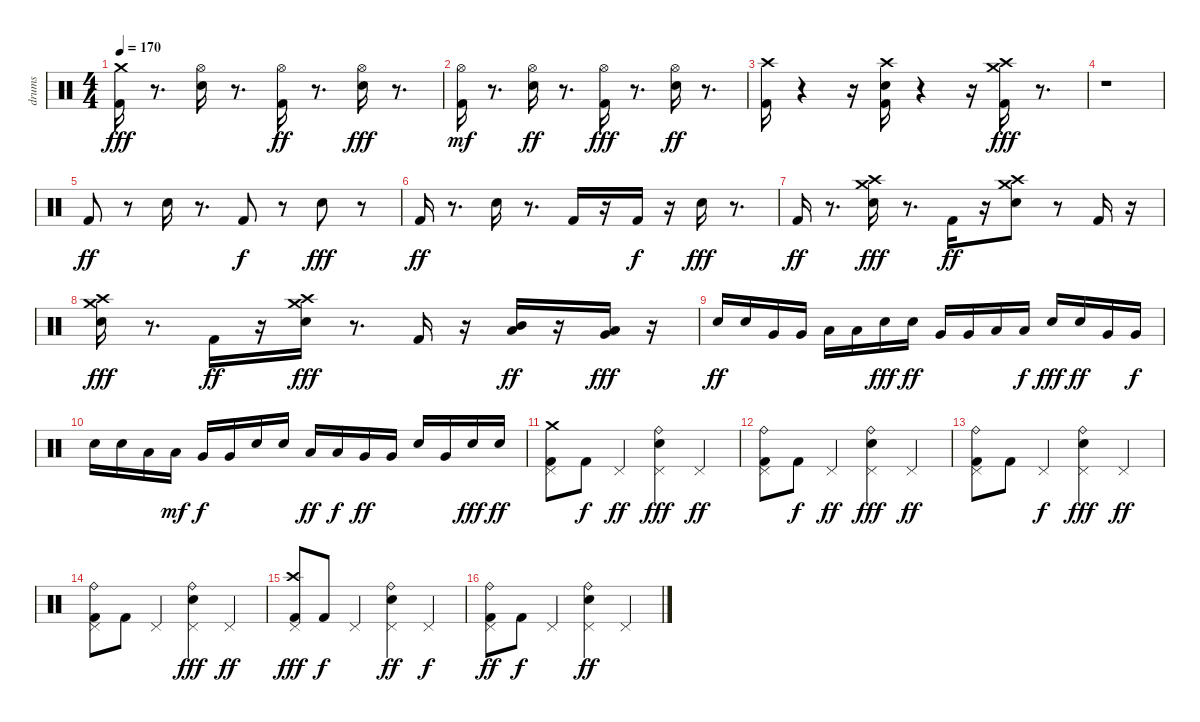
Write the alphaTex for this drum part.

\track ("drums" "drums") {instrument percussion}
\staff {score}
\articulation defaults
\ts (4 4)
\tempo 170
\clef neutral
\ks c
("Crash medium (hit)" "Kick (hit) 2").16{dy fff} r.8{d} ("Snare (hit) 2" "Hi-Hat (open)").16 r.8{d} ("Hi-Hat (open)" "Kick (hit) 2").16{dy ff} r.8{d} ("Hi-Hat (open)" "Snare (hit) 2").16{dy fff} r.8{d} |
("Hi-Hat (open)" "Kick (hit) 2").16{dy mf} r.8{d} ("Hi-Hat (open)" "Snare (hit) 2").16{dy ff} r.8{d} ("Kick (hit) 2" "Hi-Hat (open)").16{dy fff} r.8{d} ("Hi-Hat (open)" "Snare (hit) 2").16{dy ff} r.8{d} |
("Crash high (hit)" "Kick (hit) 2").16 r.4 r.16 ("Crash high (hit)" "Kick (hit) 2" "Snare (hit) 2").16 r.4 r.16 ("Crash medium (hit)" "Kick (hit) 2" "Crash high (hit)").16{dy fff} r.8{d} |
r.1 |
"Kick (hit) 2".8{dy ff} r.8 "Snare (hit) 2".16 r.8{d} "Kick (hit) 2".8{dy f} r.8 "Snare (hit) 2".8{dy fff} r.8 |
"Kick (hit) 2".16{dy ff} r.8{d} "Snare (hit) 2".16 r.8{d} "Kick (hit) 2".16 r.16 "Kick (hit) 2".16{dy f} r.16 "Snare (hit) 2".16{dy fff} r.8{d} |
"Kick (hit) 2".16{dy ff} r.8{d} ("Snare (hit) 2" "Crash high (hit)" "Crash medium (hit)").16{dy fff} r.8{d} "Kick (hit) 2".16{dy ff} r.16 ("Snare (hit) 2" "Crash high (hit)" "Crash medium (hit)").8 r.8 "Kick (hit) 2".16 r.16 |
("Snare (hit) 2" "Crash high (hit)" "Crash medium (hit)").16{dy fff} r.8{d} "Kick (hit) 2".16{dy ff} r.16 ("Snare (hit) 2" "Crash medium (hit)" "Crash high (hit)").16{dy fff} r.8{d} "Kick (hit) 2".16 r.16 ("Mid Tom (hit)" "Low Tom (hit)").16{dy ff} r.16 ("Very Low Tom (hit)" "Low Tom (hit)").16{dy fff} r.16 |
"Snare (hit) 2".16{dy ff} "Snare (hit) 2".16 "Very Low Tom (hit)".16 "Very Low Tom (hit)".16 "Low Floor Tom (hit)".16 "Low Floor Tom (hit)".16 "Snare (hit) 2".16{dy fff} "Snare (hit) 2".16{dy ff} "Very Low Tom (hit)".16 "Very Low Tom (hit)".16 "Low Floor Tom (hit)".16 "Low Floor Tom (hit)".16{dy f} "Snare (hit) 2".16{dy fff} "Snare (hit) 2".16{dy ff} "Very Low Tom (hit)".16 "Very Low Tom (hit)".16{dy f} |
"Snare (hit) 2".16 "Snare (hit) 2".16 "Low Tom (hit)".16 "Low Tom (hit)".16{dy mf} "Very Low Tom (hit)".16{dy f} "Very Low Tom (hit)".16 "Snare (hit) 2".16 "Snare (hit) 2".16 "Low Tom (hit)".16{dy ff} "Low Tom (hit)".16{dy f} "Very Low Tom (hit)".16{dy ff} "Very Low Tom (hit)".16 "Snare (hit) 2".16 "Very Low Tom (hit)".16 "Snare (hit) 2".16{dy fff} "Snare (hit) 2".16{dy ff} |
("Pedal Hi-Hat (hit)" "Crash medium (hit)" "Kick (hit) 2").8 "Kick (hit) 2".8{dy f} "Pedal Hi-Hat (hit)".4{dy ff} ("Pedal Hi-Hat (hit)" "Ride (bell)" "Snare (hit) 2").4{dy fff} "Pedal Hi-Hat (hit)".4{dy ff} |
("Pedal Hi-Hat (hit)" "Ride (bell)" "Kick (hit) 2").8 "Kick (hit) 2".8{dy f} "Pedal Hi-Hat (hit)".4{dy ff} ("Pedal Hi-Hat (hit)" "Snare (hit) 2" "Ride (bell)").4{dy fff} "Pedal Hi-Hat (hit)".4{dy ff} |
("Pedal Hi-Hat (hit)" "Kick (hit) 2" "Ride (bell)").8 "Kick (hit) 2".8 "Pedal Hi-Hat (hit)".4{dy f} ("Pedal Hi-Hat (hit)" "Snare (hit) 2" "Ride (bell)").4{dy fff} "Pedal Hi-Hat (hit)".4{dy ff} |
("Pedal Hi-Hat (hit)" "Kick (hit) 2" "Ride (bell)").8 "Kick (hit) 2".8 "Pedal Hi-Hat (hit)".4 ("Pedal Hi-Hat (hit)" "Snare (hit) 2" "Ride (bell)").4{dy fff} "Pedal Hi-Hat (hit)".4{dy ff} |
("Pedal Hi-Hat (hit)" "Kick (hit) 2" "Crash high (hit)").8{dy fff} "Kick (hit) 2".8{dy f} "Pedal Hi-Hat (hit)".4 ("Pedal Hi-Hat (hit)" "Snare (hit) 2" "Ride (bell)").4{dy ff} "Pedal Hi-Hat (hit)".4{dy f} |
("Pedal Hi-Hat (hit)" "Kick (hit) 2" "Ride (bell)").8{dy ff} "Kick (hit) 2".8{dy f} "Pedal Hi-Hat (hit)".4 ("Pedal Hi-Hat (hit)" "Snare (hit) 2" "Ride (bell)").4{dy ff} "Pedal Hi-Hat (hit)".4
